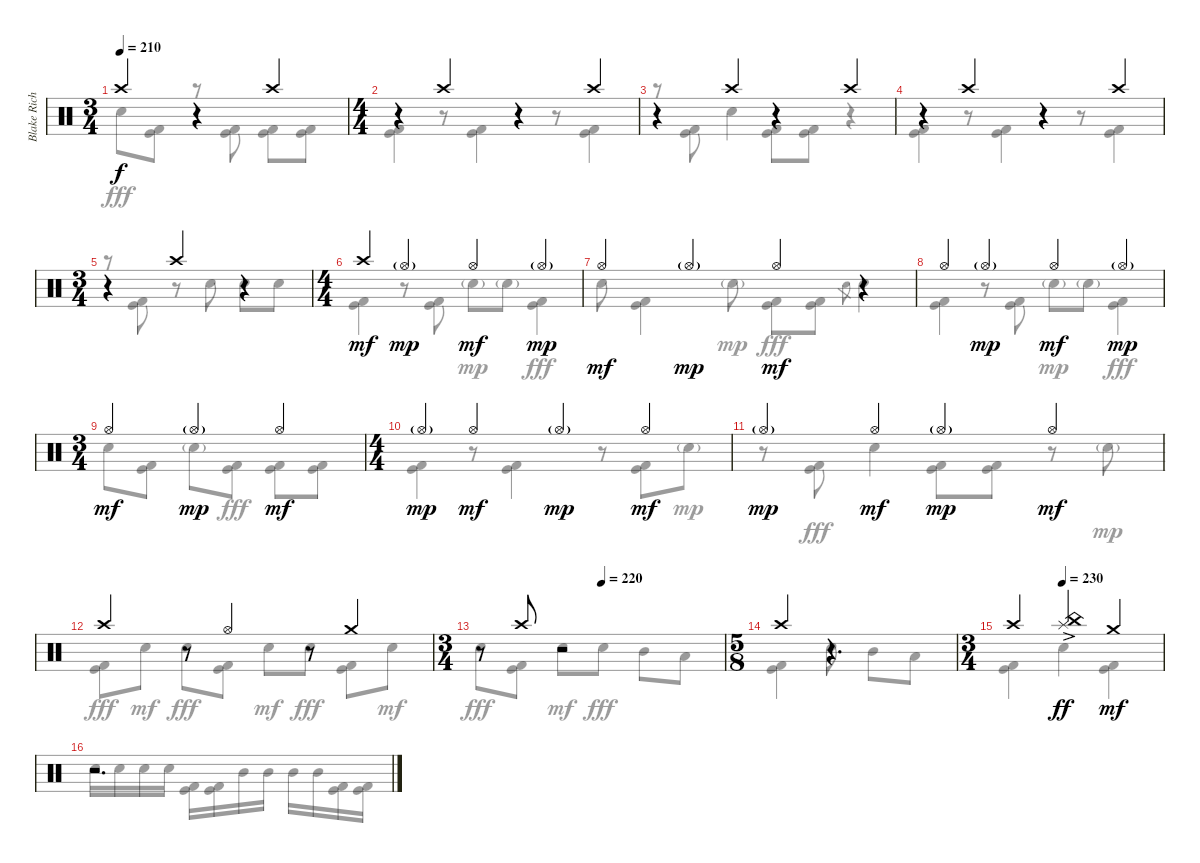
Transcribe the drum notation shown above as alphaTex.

\track ("Blake Richardson Drums" "Blake Rich") {instrument percussion}
\staff {score}
\articulation defaults
\voice
\ts (3 4)
\tempo 210
\clef neutral
\ks c "Crash high (hit)".4{dy f}
r.4 "Crash high (hit)".4 |
\ts (4 4)
r.4 "Crash high (hit)".4 r.4 "Crash high (hit)".4 |
r.4 "Crash high (hit)".4 r.4 "Crash high (hit)".4 |
r.4 "Crash high (hit)".4 r.4 "Crash high (hit)".4 |
\ts (3 4)
r.4 "Crash high (hit)".4 r.4 |
\ts (4 4)
"Crash high (hit)".4{dy mf} "Hi-Hat (open)"{g}.4{dy mp} "Hi-Hat (open)".4{dy mf} "Hi-Hat (open)"{g}.4{dy mp} |
"Hi-Hat (open)".4{dy mf} "Hi-Hat (open)"{g}.4{dy mp} "Hi-Hat (open)".4{dy mf} r.4 |
"Hi-Hat (open)".4 "Hi-Hat (open)"{g}.4{dy mp} "Hi-Hat (open)".4{dy mf} "Hi-Hat (open)"{g}.4{dy mp} |
\ts (3 4)
"Hi-Hat (open)".4{dy mf} "Hi-Hat (open)"{g}.4{dy mp} "Hi-Hat (open)".4{dy mf} |
\ts (4 4)
"Hi-Hat (open)"{g}.4{dy mp} "Hi-Hat (open)".4{dy mf} "Hi-Hat (open)"{g}.4{dy mp} "Hi-Hat (open)".4{dy mf} |
"Hi-Hat (open)"{g}.4{dy mp} "Hi-Hat (open)".4{dy mf} "Hi-Hat (open)"{g}.4{dy mp} "Hi-Hat (open)".4{dy mf} |
"Crash high (hit)".4 r.8 "Hi-Hat (open)".4 r.8 "Crash medium (hit)".4 |
\ts (3 4)
\tempo (220 0.5)
r.8 "Crash high (hit)".8 r.2 |
\ts (5 8)
"Crash high (hit)".4 r.4{d} |
\ts (3 4)
\tempo (230 0.3333333333333333)
"Crash high (hit)".4 ("China (hit)" "Splash (hit)"{ac}).4{dy ff} "Crash medium (hit)".4{dy mf} |
r.2{d}
\voice
\clef neutral
\ottava regular
\simile none
\ks c "Electric Snare (hit)".8{dy fff}
("Kick (hit)" "Kick (hit) 2").8 r.8 ("Kick (hit)" "Kick (hit) 2").8 ("Kick (hit)" "Kick (hit) 2").8 ("Kick (hit)" "Kick (hit) 2").8 |
("Kick (hit)" "Kick (hit) 2").4 r.8 ("Kick (hit)" "Kick (hit) 2").4 r.8 ("Kick (hit)" "Kick (hit) 2").4 |
r.8 ("Kick (hit)" "Kick (hit) 2").8 "Electric Snare (hit)".4 ("Kick (hit)" "Kick (hit) 2").8 ("Kick (hit)" "Kick (hit) 2").8 r.4 |
("Kick (hit)" "Kick (hit) 2").4 r.8 ("Kick (hit)" "Kick (hit) 2").4 r.8 ("Kick (hit)" "Kick (hit) 2").4 |
r.8 ("Kick (hit)" "Kick (hit) 2").8 r.8 "Electric Snare (hit)".8 "Electric Snare (hit)".8 "Electric Snare (hit)".8 |
("Kick (hit)" "Kick (hit) 2").4 r.8 ("Kick (hit)" "Kick (hit) 2").8 "Electric Snare (hit)"{g}.8{dy mp} "Electric Snare (hit)"{g}.8 ("Kick (hit)" "Kick (hit) 2").4{dy fff} |
"Electric Snare (hit)".8 ("Kick (hit)" "Kick (hit) 2").4 "Electric Snare (hit)"{g}.8{dy mp} ("Kick (hit)" "Kick (hit) 2").8{dy fff} ("Kick (hit)" "Kick (hit) 2").8 "Electric Snare (hit)".8{gr} "Electric Snare (hit)".4 |
("Kick (hit)" "Kick (hit) 2").4 r.8 ("Kick (hit)" "Kick (hit) 2").8 "Electric Snare (hit)"{g}.8{dy mp} "Electric Snare (hit)"{g}.8 ("Kick (hit)" "Kick (hit) 2").4{dy fff} |
"Electric Snare (hit)".8 ("Kick (hit)" "Kick (hit) 2").8 "Electric Snare (hit)"{g}.8{dy mp} ("Kick (hit)" "Kick (hit) 2").8{dy fff} ("Kick (hit)" "Kick (hit) 2").8 ("Kick (hit)" "Kick (hit) 2").8 |
("Kick (hit)" "Kick (hit) 2").4 r.8 ("Kick (hit)" "Kick (hit) 2").4 r.8 ("Kick (hit)" "Kick (hit) 2").8 "Electric Snare (hit)"{g}.8{dy mp} |
r.8 ("Kick (hit)" "Kick (hit) 2").8{dy fff} "Electric Snare (hit)".4 ("Kick (hit)" "Kick (hit) 2").8 ("Kick (hit)" "Kick (hit) 2").8 r.8 "Electric Snare (hit)"{g}.8{dy mp} |
("Kick (hit)" "Kick (hit) 2").8{dy fff} "Electric Snare (hit)".8{dy mf} "Electric Snare (hit)".8{dy fff} ("Kick (hit)" "Kick (hit) 2").8 "Electric Snare (hit)".8{dy mf} "Electric Snare (hit)".8{dy fff} ("Kick (hit)" "Kick (hit) 2").8 "Electric Snare (hit)".8{dy mf} |
"Electric Snare (hit)".8{dy fff} ("Kick (hit)" "Kick (hit) 2").8 "Electric Snare (hit)".8{dy mf} "Electric Snare (hit)".8{dy fff} "Mid Tom (hit)".8 "Low Tom (hit)".8 |
("Kick (hit)" "Kick (hit) 2").4 "Electric Snare (hit)".8 "Mid Tom (hit)".8 "Low Tom (hit)".8 |
("Kick (hit)" "Kick (hit) 2").4 "Electric Snare (hit)".4 ("Kick (hit)" "Kick (hit) 2").4 |
"Electric Snare (hit)".16 "Electric Snare (hit)".16 "Electric Snare (hit)".16 "Electric Snare (hit)".16 ("Kick (hit)" "Kick (hit) 2").16 ("Kick (hit)" "Kick (hit) 2").16 "Mid Tom (hit)".16 "Mid Tom (hit)".16 "Mid Tom (hit)".16 "Mid Tom (hit)".16 ("Kick (hit)" "Kick (hit) 2").16 ("Kick (hit)" "Kick (hit) 2").16
